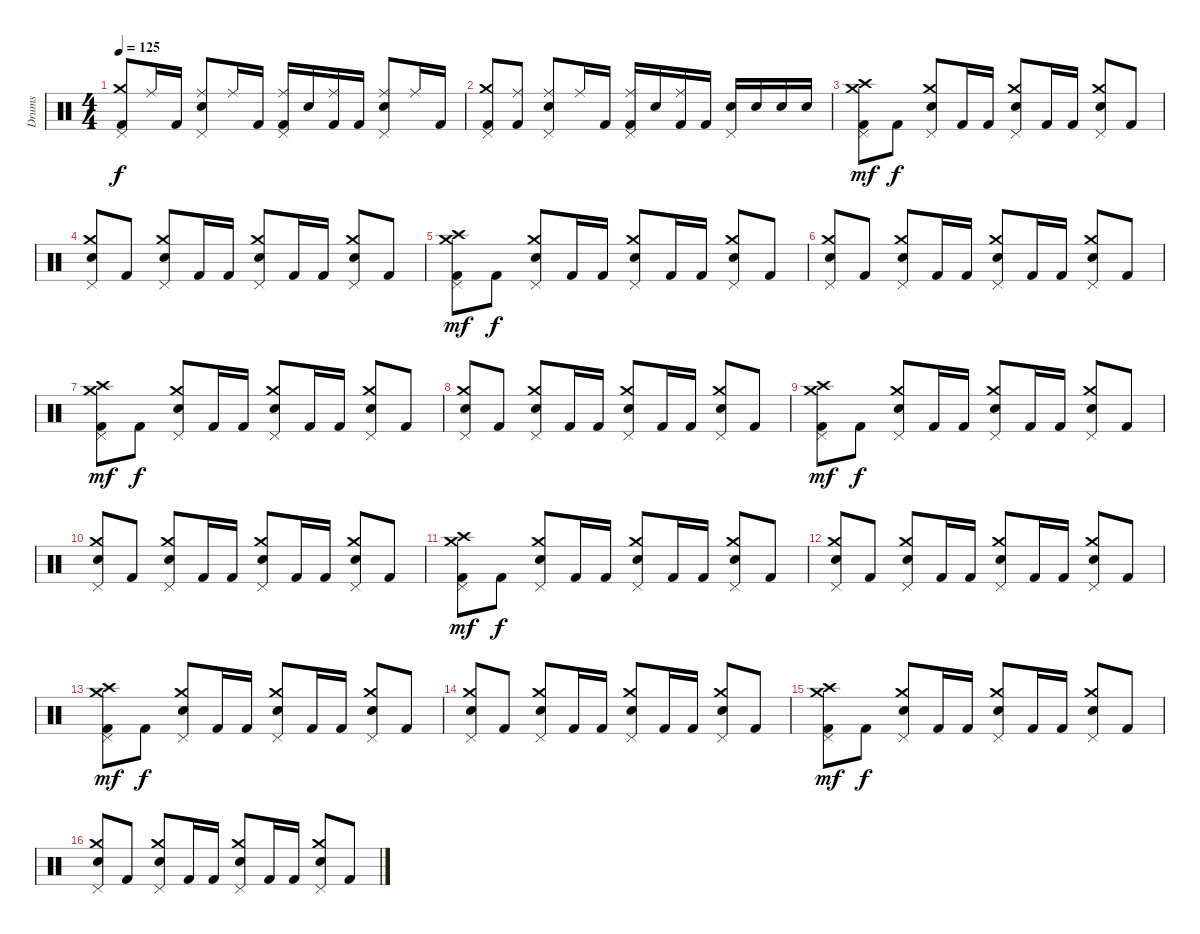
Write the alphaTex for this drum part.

\track ("Drums" "Drums") {instrument percussion}
\staff {score}
\articulation defaults
\ts (4 4)
\tempo 125
\clef neutral
\ks c
("Pedal Hi-Hat (hit)" "Crash medium (hit)" "Kick (hit) 2").8{dy f} "Ride (middle)".16 "Kick (hit) 2".16 ("Pedal Hi-Hat (hit)" "Ride (middle)" "Electric Snare (hit)").8 "Ride (middle)".16 "Kick (hit) 2".16 ("Pedal Hi-Hat (hit)" "Ride (middle)" "Kick (hit) 2").16 "Electric Snare (hit)".16 ("Ride (middle)" "Kick (hit) 2").16 "Kick (hit) 2".16 ("Pedal Hi-Hat (hit)" "Ride (middle)" "Electric Snare (hit)").8 "Ride (middle)".16 "Kick (hit) 2".16 |
("Pedal Hi-Hat (hit)" "Crash medium (hit)" "Kick (hit) 2").8 ("Ride (middle)" "Kick (hit) 2").8 ("Pedal Hi-Hat (hit)" "Ride (middle)" "Electric Snare (hit)").8 "Ride (middle)".16 "Kick (hit) 2".16 ("Pedal Hi-Hat (hit)" "Ride (middle)" "Kick (hit) 2").16 "Electric Snare (hit)".16 ("Ride (middle)" "Kick (hit) 2").16 "Kick (hit) 2".16 ("Pedal Hi-Hat (hit)" "Electric Snare (hit)").16 "Electric Snare (hit)".16 "Electric Snare (hit)".16 "Electric Snare (hit)".16 |
("Pedal Hi-Hat (hit)" "Crash high (hit)" "Crash medium (hit)" "Kick (hit) 2").8{dy mf} "Kick (hit) 2".8{dy f} ("Pedal Hi-Hat (hit)" "Crash medium (hit)" "Electric Snare (hit)").8 "Kick (hit) 2".16 "Kick (hit) 2".16 ("Pedal Hi-Hat (hit)" "Crash medium (hit)" "Electric Snare (hit)").8 "Kick (hit) 2".16 "Kick (hit) 2".16 ("Pedal Hi-Hat (hit)" "Crash medium (hit)" "Electric Snare (hit)").8 "Kick (hit) 2".8 |
("Pedal Hi-Hat (hit)" "Crash medium (hit)" "Electric Snare (hit)").8 "Kick (hit) 2".8 ("Pedal Hi-Hat (hit)" "Crash medium (hit)" "Electric Snare (hit)").8 "Kick (hit) 2".16 "Kick (hit) 2".16 ("Pedal Hi-Hat (hit)" "Crash medium (hit)" "Electric Snare (hit)").8 "Kick (hit) 2".16 "Kick (hit) 2".16 ("Pedal Hi-Hat (hit)" "Crash medium (hit)" "Electric Snare (hit)").8 "Kick (hit) 2".8 |
("Pedal Hi-Hat (hit)" "Crash high (hit)" "Crash medium (hit)" "Kick (hit) 2").8{dy mf} "Kick (hit) 2".8{dy f} ("Pedal Hi-Hat (hit)" "Crash medium (hit)" "Electric Snare (hit)").8 "Kick (hit) 2".16 "Kick (hit) 2".16 ("Pedal Hi-Hat (hit)" "Crash medium (hit)" "Electric Snare (hit)").8 "Kick (hit) 2".16 "Kick (hit) 2".16 ("Pedal Hi-Hat (hit)" "Crash medium (hit)" "Electric Snare (hit)").8 "Kick (hit) 2".8 |
("Pedal Hi-Hat (hit)" "Crash medium (hit)" "Electric Snare (hit)").8 "Kick (hit) 2".8 ("Pedal Hi-Hat (hit)" "Crash medium (hit)" "Electric Snare (hit)").8 "Kick (hit) 2".16 "Kick (hit) 2".16 ("Pedal Hi-Hat (hit)" "Crash medium (hit)" "Electric Snare (hit)").8 "Kick (hit) 2".16 "Kick (hit) 2".16 ("Pedal Hi-Hat (hit)" "Crash medium (hit)" "Electric Snare (hit)").8 "Kick (hit) 2".8 |
("Pedal Hi-Hat (hit)" "Crash high (hit)" "Crash medium (hit)" "Kick (hit) 2").8{dy mf} "Kick (hit) 2".8{dy f} ("Pedal Hi-Hat (hit)" "Crash medium (hit)" "Electric Snare (hit)").8 "Kick (hit) 2".16 "Kick (hit) 2".16 ("Pedal Hi-Hat (hit)" "Crash medium (hit)" "Electric Snare (hit)").8 "Kick (hit) 2".16 "Kick (hit) 2".16 ("Pedal Hi-Hat (hit)" "Crash medium (hit)" "Electric Snare (hit)").8 "Kick (hit) 2".8 |
("Pedal Hi-Hat (hit)" "Crash medium (hit)" "Electric Snare (hit)").8 "Kick (hit) 2".8 ("Pedal Hi-Hat (hit)" "Crash medium (hit)" "Electric Snare (hit)").8 "Kick (hit) 2".16 "Kick (hit) 2".16 ("Pedal Hi-Hat (hit)" "Crash medium (hit)" "Electric Snare (hit)").8 "Kick (hit) 2".16 "Kick (hit) 2".16 ("Pedal Hi-Hat (hit)" "Crash medium (hit)" "Electric Snare (hit)").8 "Kick (hit) 2".8 |
("Pedal Hi-Hat (hit)" "Crash high (hit)" "Crash medium (hit)" "Kick (hit) 2").8{dy mf} "Kick (hit) 2".8{dy f} ("Pedal Hi-Hat (hit)" "Crash medium (hit)" "Electric Snare (hit)").8 "Kick (hit) 2".16 "Kick (hit) 2".16 ("Pedal Hi-Hat (hit)" "Crash medium (hit)" "Electric Snare (hit)").8{volume 0} "Kick (hit) 2".16 "Kick (hit) 2".16 ("Pedal Hi-Hat (hit)" "Crash medium (hit)" "Electric Snare (hit)").8 "Kick (hit) 2".8 |
("Pedal Hi-Hat (hit)" "Crash medium (hit)" "Electric Snare (hit)").8 "Kick (hit) 2".8 ("Pedal Hi-Hat (hit)" "Crash medium (hit)" "Electric Snare (hit)").8 "Kick (hit) 2".16 "Kick (hit) 2".16 ("Pedal Hi-Hat (hit)" "Crash medium (hit)" "Electric Snare (hit)").8 "Kick (hit) 2".16 "Kick (hit) 2".16 ("Pedal Hi-Hat (hit)" "Crash medium (hit)" "Electric Snare (hit)").8 "Kick (hit) 2".8 |
("Pedal Hi-Hat (hit)" "Crash high (hit)" "Crash medium (hit)" "Kick (hit) 2").8{dy mf} "Kick (hit) 2".8{dy f} ("Pedal Hi-Hat (hit)" "Crash medium (hit)" "Electric Snare (hit)").8 "Kick (hit) 2".16 "Kick (hit) 2".16 ("Pedal Hi-Hat (hit)" "Crash medium (hit)" "Electric Snare (hit)").8 "Kick (hit) 2".16 "Kick (hit) 2".16 ("Pedal Hi-Hat (hit)" "Crash medium (hit)" "Electric Snare (hit)").8 "Kick (hit) 2".8 |
("Pedal Hi-Hat (hit)" "Crash medium (hit)" "Electric Snare (hit)").8 "Kick (hit) 2".8 ("Pedal Hi-Hat (hit)" "Crash medium (hit)" "Electric Snare (hit)").8 "Kick (hit) 2".16 "Kick (hit) 2".16 ("Pedal Hi-Hat (hit)" "Crash medium (hit)" "Electric Snare (hit)").8 "Kick (hit) 2".16 "Kick (hit) 2".16 ("Pedal Hi-Hat (hit)" "Crash medium (hit)" "Electric Snare (hit)").8 "Kick (hit) 2".8 |
("Pedal Hi-Hat (hit)" "Crash high (hit)" "Crash medium (hit)" "Kick (hit) 2").8{dy mf} "Kick (hit) 2".8{dy f} ("Pedal Hi-Hat (hit)" "Crash medium (hit)" "Electric Snare (hit)").8 "Kick (hit) 2".16 "Kick (hit) 2".16 ("Pedal Hi-Hat (hit)" "Crash medium (hit)" "Electric Snare (hit)").8 "Kick (hit) 2".16 "Kick (hit) 2".16 ("Pedal Hi-Hat (hit)" "Crash medium (hit)" "Electric Snare (hit)").8 "Kick (hit) 2".8 |
("Pedal Hi-Hat (hit)" "Crash medium (hit)" "Electric Snare (hit)").8 "Kick (hit) 2".8 ("Pedal Hi-Hat (hit)" "Crash medium (hit)" "Electric Snare (hit)").8 "Kick (hit) 2".16 "Kick (hit) 2".16 ("Pedal Hi-Hat (hit)" "Crash medium (hit)" "Electric Snare (hit)").8 "Kick (hit) 2".16 "Kick (hit) 2".16 ("Pedal Hi-Hat (hit)" "Crash medium (hit)" "Electric Snare (hit)").8 "Kick (hit) 2".8 |
("Pedal Hi-Hat (hit)" "Crash high (hit)" "Crash medium (hit)" "Kick (hit) 2").8{dy mf} "Kick (hit) 2".8{dy f} ("Pedal Hi-Hat (hit)" "Crash medium (hit)" "Electric Snare (hit)").8 "Kick (hit) 2".16 "Kick (hit) 2".16 ("Pedal Hi-Hat (hit)" "Crash medium (hit)" "Electric Snare (hit)").8 "Kick (hit) 2".16 "Kick (hit) 2".16 ("Pedal Hi-Hat (hit)" "Crash medium (hit)" "Electric Snare (hit)").8 "Kick (hit) 2".8 |
("Pedal Hi-Hat (hit)" "Crash medium (hit)" "Electric Snare (hit)").8 "Kick (hit) 2".8 ("Pedal Hi-Hat (hit)" "Crash medium (hit)" "Electric Snare (hit)").8 "Kick (hit) 2".16 "Kick (hit) 2".16 ("Pedal Hi-Hat (hit)" "Crash medium (hit)" "Electric Snare (hit)").8 "Kick (hit) 2".16 "Kick (hit) 2".16 ("Pedal Hi-Hat (hit)" "Crash medium (hit)" "Electric Snare (hit)").8 "Kick (hit) 2".8
